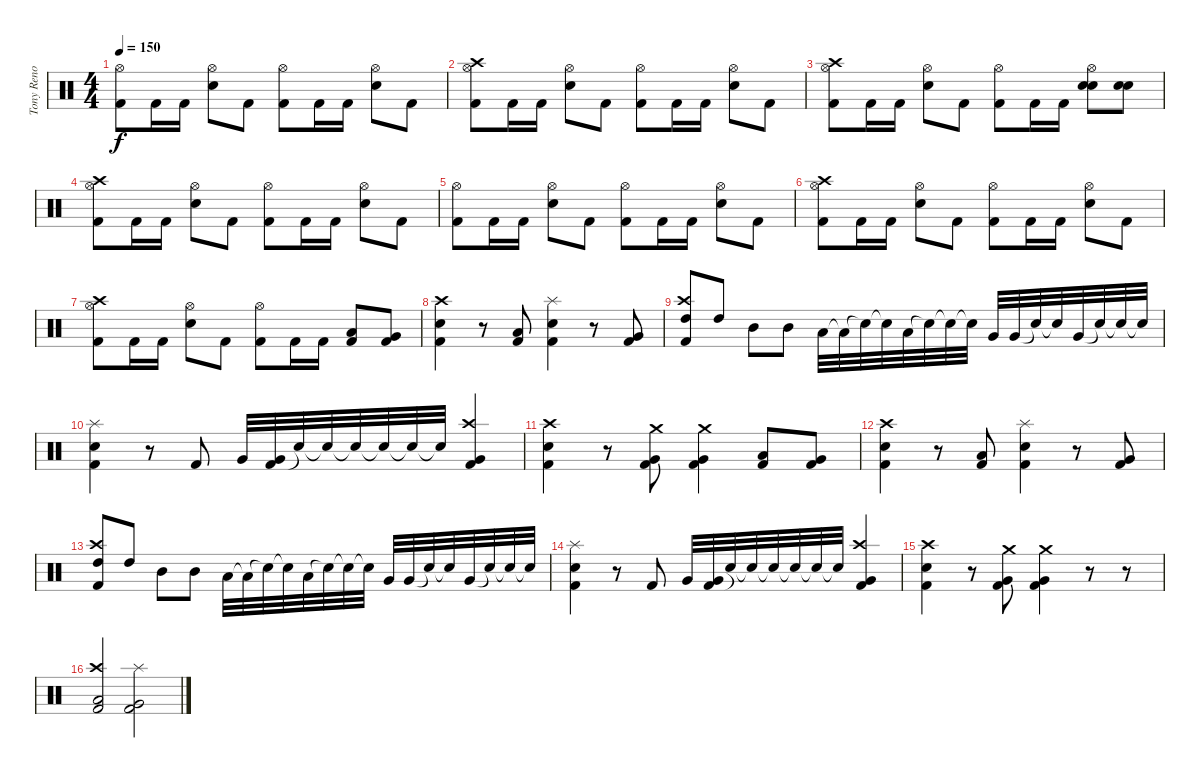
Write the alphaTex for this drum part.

\track ("Tony Reno" "Tony Reno") {instrument percussion}
\staff {score}
\articulation defaults
\ts (4 4)
\tempo 150
\clef neutral
\ks c
("Kick (hit) 2" "Hi-Hat (open)").8{dy f} "Kick (hit) 2".16 "Kick (hit) 2".16 ("Snare (hit) 2" "Hi-Hat (open)").8 "Kick (hit) 2".8 ("Kick (hit) 2" "Hi-Hat (open)").8 "Kick (hit) 2".16 "Kick (hit) 2".16 ("Snare (hit) 2" "Hi-Hat (open)").8 "Kick (hit) 2".8 |
("Kick (hit) 2" "Hi-Hat (open)" "Crash high (hit)").8 "Kick (hit) 2".16 "Kick (hit) 2".16 ("Snare (hit) 2" "Hi-Hat (open)").8 "Kick (hit) 2".8 ("Kick (hit) 2" "Hi-Hat (open)").8 "Kick (hit) 2".16 "Kick (hit) 2".16 ("Snare (hit) 2" "Hi-Hat (open)").8 "Kick (hit) 2".8 |
("Kick (hit) 2" "Hi-Hat (open)" "Crash high (hit)").8 "Kick (hit) 2".16 "Kick (hit) 2".16 ("Snare (hit) 2" "Hi-Hat (open)").8 "Kick (hit) 2".8 ("Kick (hit) 2" "Hi-Hat (open)").8 "Kick (hit) 2".16 "Kick (hit) 2".16 ("Snare (hit) 2" "Electric Snare (hit)" "Hi-Hat (open)").8 ("Snare (hit) 2" "Electric Snare (hit)").8 |
("Kick (hit) 2" "Hi-Hat (open)" "Crash high (hit)").8 "Kick (hit) 2".16 "Kick (hit) 2".16 ("Snare (hit) 2" "Hi-Hat (open)").8 "Kick (hit) 2".8 ("Kick (hit) 2" "Hi-Hat (open)").8 "Kick (hit) 2".16 "Kick (hit) 2".16 ("Snare (hit) 2" "Hi-Hat (open)").8 "Kick (hit) 2".8 |
("Kick (hit) 2" "Hi-Hat (open)").8 "Kick (hit) 2".16 "Kick (hit) 2".16 ("Snare (hit) 2" "Hi-Hat (open)").8 "Kick (hit) 2".8 ("Kick (hit) 2" "Hi-Hat (open)").8 "Kick (hit) 2".16 "Kick (hit) 2".16 ("Snare (hit) 2" "Hi-Hat (open)").8 "Kick (hit) 2".8 |
("Kick (hit) 2" "Hi-Hat (open)" "Crash high (hit)").8 "Kick (hit) 2".16 "Kick (hit) 2".16 ("Snare (hit) 2" "Hi-Hat (open)").8 "Kick (hit) 2".8 ("Kick (hit) 2" "Hi-Hat (open)").8 "Kick (hit) 2".16 "Kick (hit) 2".16 ("Snare (hit) 2" "Hi-Hat (open)").8 "Kick (hit) 2".8 |
("Kick (hit) 2" "Hi-Hat (open)" "Crash high (hit)").8 "Kick (hit) 2".16 "Kick (hit) 2".16 ("Snare (hit) 2" "Hi-Hat (open)").8 "Kick (hit) 2".8 ("Kick (hit) 2" "Hi-Hat (open)").8 "Kick (hit) 2".16 "Kick (hit) 2".16 ("Kick (hit) 2" "Low Tom (hit)").8 ("Kick (hit) 2" "Very Low Tom (hit)").8 |
("Kick (hit) 2" "Snare (hit) 2" "Crash high (hit)").4 r.8 ("Kick (hit) 2" "Low Tom (hit)").8 ("Kick (hit) 2" "Snare (hit) 2" "Splash (hit)").4 r.8 ("Kick (hit) 2" "Very Low Tom (hit)").8 |
("Kick (hit) 2" "High Tom (hit)" "Crash high (hit)").8 "High Tom (hit)".8 "Mid Tom (hit)".8 "Mid Tom (hit)".8 "Low Tom (hit)".32 "Low Tom (hit)"{t}.32 "Snare (hit)"{t}.32 "Snare (hit)"{t}.32 "Low Tom (hit)".32 "Snare (hit)"{t}.32 "Snare (hit)"{t}.32 "Snare (hit)"{t}.32 "Very Low Tom (hit)".32 "Very Low Tom (hit)".32 "Snare (hit)"{t}.32 "Snare (hit)"{t}.32 "Very Low Tom (hit)".32 "Snare (hit)"{t}.32 "Snare (hit)"{t}.32 "Snare (hit)"{t}.32 |
("Kick (hit) 2" "Snare (hit) 2" "Splash (hit)").4 r.8 "Kick (hit) 2".8 "Very Low Tom (hit)".32 ("Kick (hit) 2" "Very Low Tom (hit)").32 "Snare (hit)"{t}.32 "Snare (hit)"{t}.32 "Snare (hit) 2"{t}.32 "Snare (hit)"{t}.32 "Snare (hit)"{t}.32 "Snare (hit)"{t}.32 ("Kick (hit) 2" "Very Low Tom (hit)" "Crash high (hit)").4 |
("Kick (hit) 2" "Snare (hit) 2" "Crash high (hit)").4 r.8 ("Kick (hit) 2" "Very Low Tom (hit)" "Crash medium (hit)").8 ("Kick (hit) 2" "Very Low Tom (hit)" "Crash medium (hit)").4 ("Kick (hit) 2" "Low Tom (hit)").8 ("Kick (hit) 2" "Very Low Tom (hit)").8 |
("Kick (hit) 2" "Snare (hit) 2" "Crash high (hit)").4 r.8 ("Kick (hit) 2" "Low Tom (hit)").8 ("Kick (hit) 2" "Snare (hit) 2" "Splash (hit)").4 r.8 ("Kick (hit) 2" "Very Low Tom (hit)").8 |
("Kick (hit) 2" "High Tom (hit)" "Crash high (hit)").8 "High Tom (hit)".8 "Mid Tom (hit)".8 "Mid Tom (hit)".8 "Low Tom (hit)".32 "Low Tom (hit)"{t}.32 "Snare (hit)"{t}.32 "Snare (hit)"{t}.32 "Low Tom (hit)".32 "Snare (hit)"{t}.32 "Snare (hit)"{t}.32 "Snare (hit)"{t}.32 "Very Low Tom (hit)".32 "Very Low Tom (hit)".32 "Snare (hit)"{t}.32 "Snare (hit)"{t}.32 "Very Low Tom (hit)".32 "Snare (hit)"{t}.32 "Snare (hit)"{t}.32 "Snare (hit)"{t}.32 |
("Kick (hit) 2" "Snare (hit) 2" "Splash (hit)").4 r.8 "Kick (hit) 2".8 "Very Low Tom (hit)".32 ("Kick (hit) 2" "Very Low Tom (hit)").32 "Snare (hit)"{t}.32 "Snare (hit)"{t}.32 "Snare (hit) 2"{t}.32 "Snare (hit)"{t}.32 "Snare (hit)"{t}.32 "Snare (hit)"{t}.32 ("Kick (hit) 2" "Very Low Tom (hit)" "Crash high (hit)").4 |
("Kick (hit) 2" "Snare (hit) 2" "Crash high (hit)").4 r.8 ("Kick (hit) 2" "Very Low Tom (hit)" "Crash medium (hit)").8 ("Kick (hit) 2" "Very Low Tom (hit)" "Crash medium (hit)").4 r.8 r.8 |
("Kick (hit) 2" "Low Floor Tom (hit)" "Crash high (hit)").2 ("Kick (hit) 2" "Very Low Tom (hit)" "Splash (hit)").2
